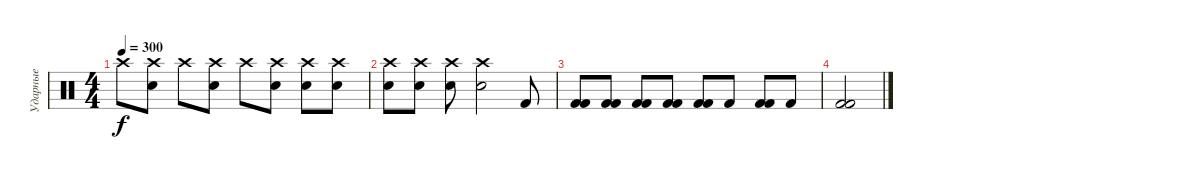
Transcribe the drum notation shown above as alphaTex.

\track ("Ударные" "Ударные") {instrument percussion}
\staff {score}
\articulation defaults
\ts (4 4)
\tempo 300
\clef neutral
\ks c "Crash high (hit)".8{dy f}
("Crash high (hit)" "Electric Snare (hit)").8 "Crash high (hit)".8 ("Crash high (hit)" "Electric Snare (hit)").8 "Crash high (hit)".8 ("Crash high (hit)" "Electric Snare (hit)").8 ("Crash high (hit)" "Electric Snare (hit)").8 ("Crash high (hit)" "Electric Snare (hit)").8 |
("Crash high (hit)" "Electric Snare (hit)").8 ("Crash high (hit)" "Electric Snare (hit)").8 ("Crash high (hit)" "Electric Snare (hit)").8 ("Crash high (hit)" "Electric Snare (hit)").2 "Kick (hit) 2".8 |
("Kick (hit) 2" "Kick (hit) 2").8 ("Kick (hit) 2" "Kick (hit) 2").8 ("Kick (hit) 2" "Kick (hit) 2").8 ("Kick (hit) 2" "Kick (hit) 2").8 ("Kick (hit) 2" "Kick (hit) 2").8 "Kick (hit) 2".8 ("Kick (hit) 2" "Kick (hit) 2").8 "Kick (hit) 2".8 |
("Kick (hit) 2" "Kick (hit) 2").2
